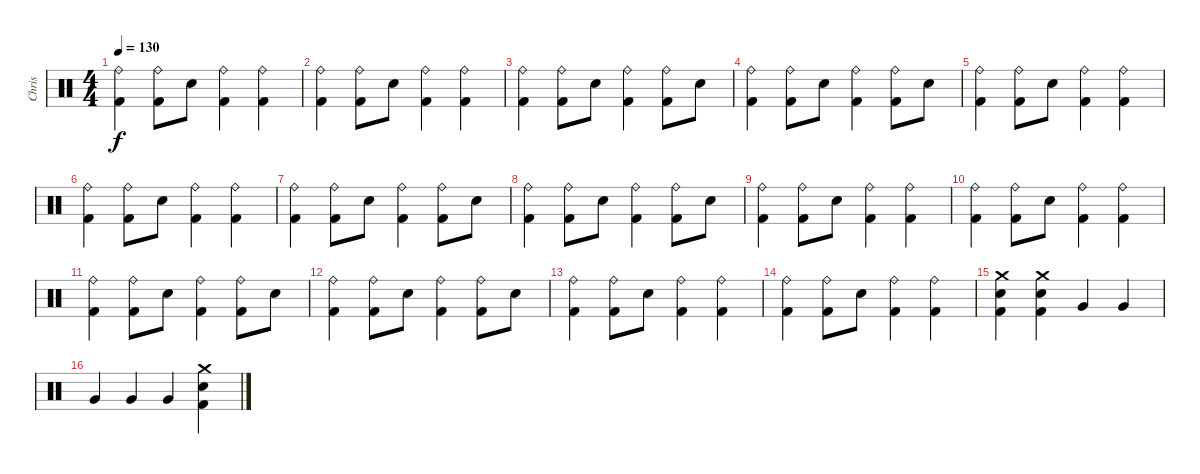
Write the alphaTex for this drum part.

\track ("Chris" "Chris") {instrument percussion}
\staff {score}
\articulation defaults
\ts (4 4)
\tempo 130
\clef neutral
\ks c
("Ride (bell)" "Kick (hit) 2").4{dy f} ("Ride (bell)" "Kick (hit) 2").8 "Electric Snare (hit)".8 ("Ride (bell)" "Kick (hit) 2").4 ("Ride (bell)" "Kick (hit) 2").4 |
("Ride (bell)" "Kick (hit) 2").4 ("Ride (bell)" "Kick (hit) 2").8 "Electric Snare (hit)".8 ("Ride (bell)" "Kick (hit) 2").4 ("Ride (bell)" "Kick (hit) 2").4 |
("Ride (bell)" "Kick (hit) 2").4 ("Ride (bell)" "Kick (hit) 2").8 "Electric Snare (hit)".8 ("Ride (bell)" "Kick (hit) 2").4 ("Ride (bell)" "Kick (hit) 2").8 "Electric Snare (hit)".8 |
("Ride (bell)" "Kick (hit) 2").4 ("Ride (bell)" "Kick (hit) 2").8 "Electric Snare (hit)".8 ("Ride (bell)" "Kick (hit) 2").4 ("Ride (bell)" "Kick (hit) 2").8 "Electric Snare (hit)".8 |
("Ride (bell)" "Kick (hit) 2").4 ("Ride (bell)" "Kick (hit) 2").8 "Electric Snare (hit)".8 ("Ride (bell)" "Kick (hit) 2").4 ("Ride (bell)" "Kick (hit) 2").4 |
("Ride (bell)" "Kick (hit) 2").4 ("Ride (bell)" "Kick (hit) 2").8 "Electric Snare (hit)".8 ("Ride (bell)" "Kick (hit) 2").4 ("Ride (bell)" "Kick (hit) 2").4 |
("Ride (bell)" "Kick (hit) 2").4 ("Ride (bell)" "Kick (hit) 2").8 "Electric Snare (hit)".8 ("Ride (bell)" "Kick (hit) 2").4 ("Ride (bell)" "Kick (hit) 2").8 "Electric Snare (hit)".8 |
("Ride (bell)" "Kick (hit) 2").4 ("Ride (bell)" "Kick (hit) 2").8 "Electric Snare (hit)".8 ("Ride (bell)" "Kick (hit) 2").4 ("Ride (bell)" "Kick (hit) 2").8 "Electric Snare (hit)".8 |
("Ride (bell)" "Kick (hit) 2").4 ("Ride (bell)" "Kick (hit) 2").8 "Electric Snare (hit)".8 ("Ride (bell)" "Kick (hit) 2").4 ("Ride (bell)" "Kick (hit) 2").4 |
("Ride (bell)" "Kick (hit) 2").4 ("Ride (bell)" "Kick (hit) 2").8 "Electric Snare (hit)".8 ("Ride (bell)" "Kick (hit) 2").4 ("Ride (bell)" "Kick (hit) 2").4 |
("Ride (bell)" "Kick (hit) 2").4 ("Ride (bell)" "Kick (hit) 2").8 "Electric Snare (hit)".8 ("Ride (bell)" "Kick (hit) 2").4 ("Ride (bell)" "Kick (hit) 2").8 "Electric Snare (hit)".8 |
("Ride (bell)" "Kick (hit) 2").4 ("Ride (bell)" "Kick (hit) 2").8 "Electric Snare (hit)".8 ("Ride (bell)" "Kick (hit) 2").4 ("Ride (bell)" "Kick (hit) 2").8 "Electric Snare (hit)".8 |
("Ride (bell)" "Kick (hit) 2").4 ("Ride (bell)" "Kick (hit) 2").8 "Electric Snare (hit)".8 ("Ride (bell)" "Kick (hit) 2").4 ("Ride (bell)" "Kick (hit) 2").4 |
("Ride (bell)" "Kick (hit) 2").4 ("Ride (bell)" "Kick (hit) 2").8 "Electric Snare (hit)".8 ("Ride (bell)" "Kick (hit) 2").4 ("Ride (bell)" "Kick (hit) 2").4 |
("Electric Snare (hit)" "Crash medium (hit)" "Kick (hit) 2").4 ("Electric Snare (hit)" "Crash medium (hit)" "Kick (hit) 2").4 "Very Low Tom (hit)".4 "Very Low Tom (hit)".4 |
"Very Low Tom (hit)".4 "Very Low Tom (hit)".4 "Very Low Tom (hit)".4 ("Kick (hit) 2" "Electric Snare (hit)" "Crash medium (hit)").4
